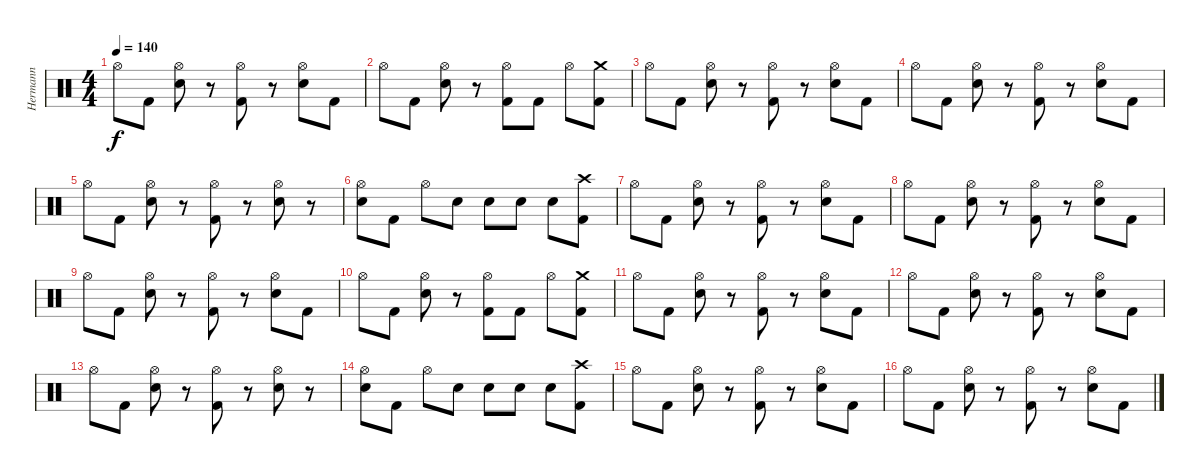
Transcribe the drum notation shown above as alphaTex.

\track ("Hermann" "Hermann") {instrument percussion}
\staff {score}
\articulation defaults
\ts (4 4)
\tempo 140
\clef neutral
\ks c "Hi-Hat (open)".8{dy f} "Kick (hit) 2".8
("Hi-Hat (open)" "Electric Snare (hit)").8 r.8 ("Hi-Hat (open)" "Kick (hit) 2").8 r.8 ("Hi-Hat (open)" "Electric Snare (hit)").8 "Kick (hit) 2".8 |
"Hi-Hat (open)".8 "Kick (hit) 2".8 ("Hi-Hat (open)" "Electric Snare (hit)").8 r.8 ("Hi-Hat (open)" "Kick (hit) 2").8 "Kick (hit) 2".8 "Hi-Hat (open)".8 ("Crash medium (hit)" "Kick (hit) 2").8 |
"Hi-Hat (open)".8 "Kick (hit) 2".8 ("Hi-Hat (open)" "Electric Snare (hit)").8 r.8 ("Hi-Hat (open)" "Kick (hit) 2").8 r.8 ("Hi-Hat (open)" "Electric Snare (hit)").8 "Kick (hit) 2".8 |
"Hi-Hat (open)".8 "Kick (hit) 2".8 ("Hi-Hat (open)" "Electric Snare (hit)").8 r.8 ("Hi-Hat (open)" "Kick (hit) 2").8 r.8 ("Hi-Hat (open)" "Electric Snare (hit)").8 "Kick (hit) 2".8 |
"Hi-Hat (open)".8 "Kick (hit) 2".8 ("Hi-Hat (open)" "Electric Snare (hit)").8 r.8 ("Hi-Hat (open)" "Kick (hit) 2").8 r.8 ("Hi-Hat (open)" "Electric Snare (hit)").8 r.8 |
("Hi-Hat (open)" "Electric Snare (hit)").8 "Kick (hit) 2".8 "Hi-Hat (open)".8 "Electric Snare (hit)".8 "Electric Snare (hit)".8 "Electric Snare (hit)".8 "Electric Snare (hit)".8 ("Crash high (hit)" "Kick (hit) 2").8 |
"Hi-Hat (open)".8 "Kick (hit) 2".8 ("Hi-Hat (open)" "Electric Snare (hit)").8 r.8 ("Hi-Hat (open)" "Kick (hit) 2").8 r.8 ("Hi-Hat (open)" "Electric Snare (hit)").8 "Kick (hit) 2".8 |
"Hi-Hat (open)".8 "Kick (hit) 2".8 ("Hi-Hat (open)" "Electric Snare (hit)").8 r.8 ("Hi-Hat (open)" "Kick (hit) 2").8 r.8 ("Hi-Hat (open)" "Electric Snare (hit)").8 "Kick (hit) 2".8 |
"Hi-Hat (open)".8 "Kick (hit) 2".8 ("Hi-Hat (open)" "Electric Snare (hit)").8 r.8 ("Hi-Hat (open)" "Kick (hit) 2").8 r.8 ("Hi-Hat (open)" "Electric Snare (hit)").8 "Kick (hit) 2".8 |
"Hi-Hat (open)".8 "Kick (hit) 2".8 ("Hi-Hat (open)" "Electric Snare (hit)").8 r.8 ("Hi-Hat (open)" "Kick (hit) 2").8 "Kick (hit) 2".8 "Hi-Hat (open)".8 ("Crash medium (hit)" "Kick (hit) 2").8 |
"Hi-Hat (open)".8 "Kick (hit) 2".8 ("Hi-Hat (open)" "Electric Snare (hit)").8 r.8 ("Hi-Hat (open)" "Kick (hit) 2").8 r.8 ("Hi-Hat (open)" "Electric Snare (hit)").8 "Kick (hit) 2".8 |
"Hi-Hat (open)".8 "Kick (hit) 2".8 ("Hi-Hat (open)" "Electric Snare (hit)").8 r.8 ("Hi-Hat (open)" "Kick (hit) 2").8 r.8 ("Hi-Hat (open)" "Electric Snare (hit)").8 "Kick (hit) 2".8 |
"Hi-Hat (open)".8 "Kick (hit) 2".8 ("Hi-Hat (open)" "Electric Snare (hit)").8 r.8 ("Hi-Hat (open)" "Kick (hit) 2").8 r.8 ("Hi-Hat (open)" "Electric Snare (hit)").8 r.8 |
("Hi-Hat (open)" "Electric Snare (hit)").8 "Kick (hit) 2".8 "Hi-Hat (open)".8 "Electric Snare (hit)".8 "Electric Snare (hit)".8 "Electric Snare (hit)".8 "Electric Snare (hit)".8 ("Crash high (hit)" "Kick (hit) 2").8 |
"Hi-Hat (open)".8 "Kick (hit) 2".8 ("Hi-Hat (open)" "Electric Snare (hit)").8 r.8 ("Hi-Hat (open)" "Kick (hit) 2").8 r.8 ("Hi-Hat (open)" "Electric Snare (hit)").8 "Kick (hit) 2".8 |
"Hi-Hat (open)".8 "Kick (hit) 2".8 ("Hi-Hat (open)" "Electric Snare (hit)").8 r.8 ("Hi-Hat (open)" "Kick (hit) 2").8 r.8 ("Hi-Hat (open)" "Electric Snare (hit)").8 "Kick (hit) 2".8
